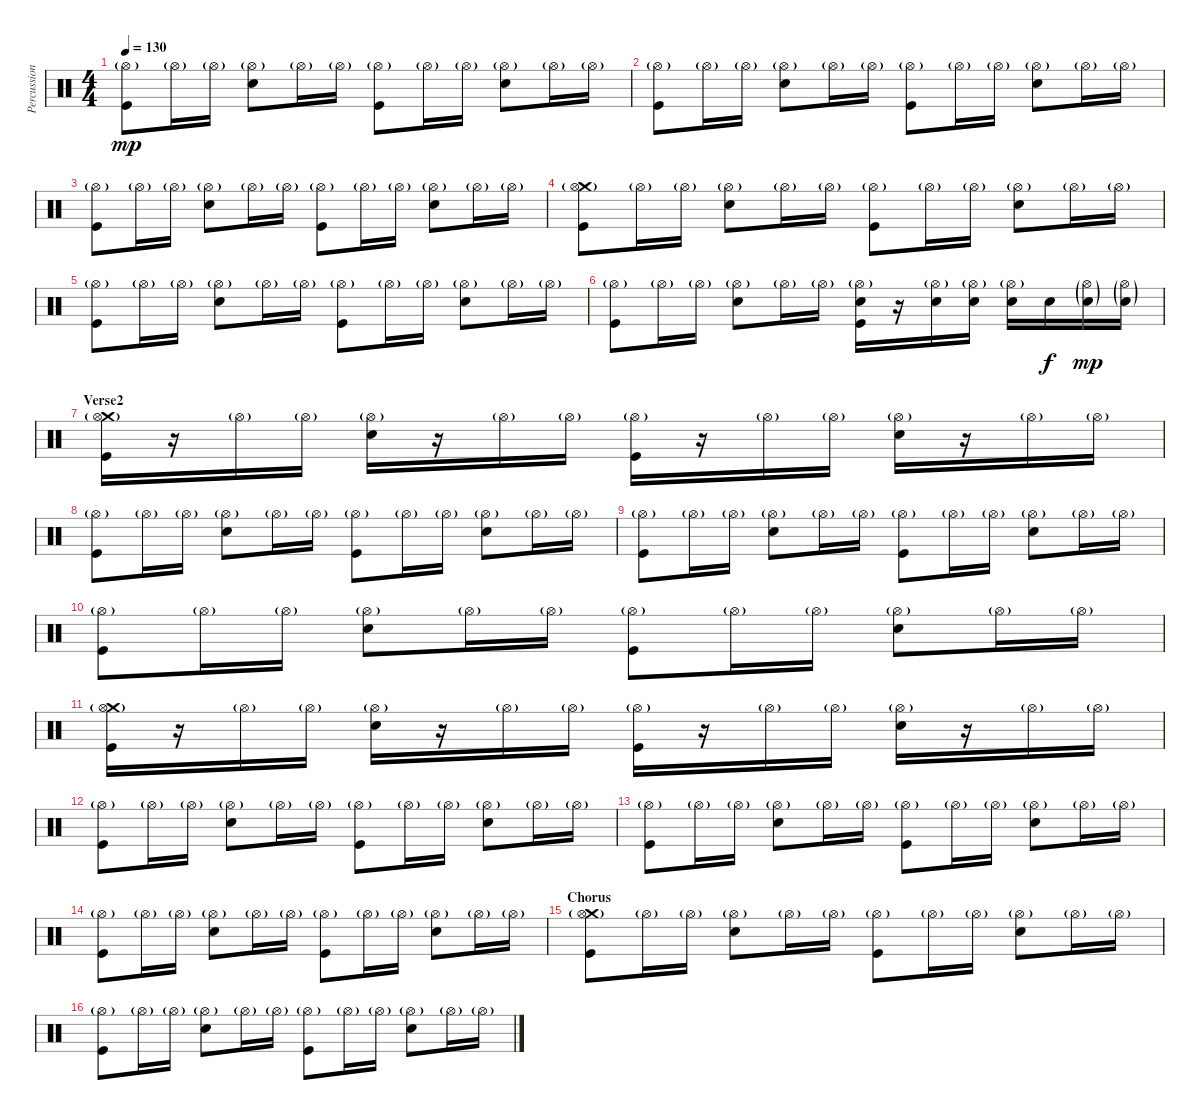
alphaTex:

\track ("Percussion" "Percussion") {instrument percussion}
\staff {score}
\articulation defaults
\ts (4 4)
\tempo 130
\clef neutral
\ks c
("Hi-Hat (open)"{g} "Kick (hit)").8{dy mp} "Hi-Hat (open)"{g}.16 "Hi-Hat (open)"{g}.16 ("Hi-Hat (open)"{g} "Snare (hit) 2").8 "Hi-Hat (open)"{g}.16 "Hi-Hat (open)"{g}.16 ("Hi-Hat (open)"{g} "Kick (hit)").8 "Hi-Hat (open)"{g}.16 "Hi-Hat (open)"{g}.16 ("Hi-Hat (open)"{g} "Snare (hit) 2").8 "Hi-Hat (open)"{g}.16 "Hi-Hat (open)"{g}.16 |
("Hi-Hat (open)"{g} "Kick (hit)").8{balance 8} "Hi-Hat (open)"{g}.16 "Hi-Hat (open)"{g}.16 ("Hi-Hat (open)"{g} "Snare (hit) 2").8 "Hi-Hat (open)"{g}.16 "Hi-Hat (open)"{g}.16 ("Hi-Hat (open)"{g} "Kick (hit)").8 "Hi-Hat (open)"{g}.16 "Hi-Hat (open)"{g}.16 ("Hi-Hat (open)"{g} "Snare (hit) 2").8 "Hi-Hat (open)"{g}.16 "Hi-Hat (open)"{g}.16 |
("Hi-Hat (open)"{g} "Kick (hit)").8{balance 8} "Hi-Hat (open)"{g}.16 "Hi-Hat (open)"{g}.16 ("Hi-Hat (open)"{g} "Snare (hit) 2").8 "Hi-Hat (open)"{g}.16 "Hi-Hat (open)"{g}.16 ("Hi-Hat (open)"{g} "Kick (hit)").8 "Hi-Hat (open)"{g}.16 "Hi-Hat (open)"{g}.16 ("Hi-Hat (open)"{g} "Snare (hit) 2").8 "Hi-Hat (open)"{g}.16 "Hi-Hat (open)"{g}.16 |
("Crash medium (hit)" "Hi-Hat (open)"{g} "Kick (hit)").8{balance 8} "Hi-Hat (open)"{g}.16 "Hi-Hat (open)"{g}.16 ("Hi-Hat (open)"{g} "Snare (hit) 2").8 "Hi-Hat (open)"{g}.16 "Hi-Hat (open)"{g}.16 ("Hi-Hat (open)"{g} "Kick (hit)").8 "Hi-Hat (open)"{g}.16 "Hi-Hat (open)"{g}.16 ("Hi-Hat (open)"{g} "Snare (hit) 2").8 "Hi-Hat (open)"{g}.16 "Hi-Hat (open)"{g}.16 |
("Hi-Hat (open)"{g} "Kick (hit)").8{balance 8} "Hi-Hat (open)"{g}.16 "Hi-Hat (open)"{g}.16 ("Hi-Hat (open)"{g} "Snare (hit) 2").8 "Hi-Hat (open)"{g}.16 "Hi-Hat (open)"{g}.16 ("Hi-Hat (open)"{g} "Kick (hit)").8 "Hi-Hat (open)"{g}.16 "Hi-Hat (open)"{g}.16 ("Hi-Hat (open)"{g} "Snare (hit) 2").8 "Hi-Hat (open)"{g}.16 "Hi-Hat (open)"{g}.16 |
("Hi-Hat (open)"{g} "Kick (hit)").8{balance 8} "Hi-Hat (open)"{g}.16 "Hi-Hat (open)"{g}.16 ("Hi-Hat (open)"{g} "Snare (hit) 2").8 "Hi-Hat (open)"{g}.16 "Hi-Hat (open)"{g}.16 ("Snare (hit) 2" "Hi-Hat (open)"{g} "Kick (hit)").16 r.16 ("Snare (hit) 2" "Hi-Hat (open)"{g}).16 ("Snare (hit) 2" "Hi-Hat (open)"{g}).16 ("Hi-Hat (open)"{g} "Snare (hit) 2").16 "Snare (hit) 2".16{dy f} ("Snare (hit) 2"{g} "Hi-Hat (open)"{g}).16{dy mp} ("Snare (hit) 2"{g} "Hi-Hat (open)"{g}).16 |
\section ("" "Verse2")
("Crash medium (hit)" "Hi-Hat (open)"{g} "Kick (hit)").16{balance 8} r.16 "Hi-Hat (open)"{g}.16 "Hi-Hat (open)"{g}.16 ("Hi-Hat (open)"{g} "Snare (hit) 2").16 r.16 "Hi-Hat (open)"{g}.16 "Hi-Hat (open)"{g}.16 ("Hi-Hat (open)"{g} "Kick (hit)").16 r.16 "Hi-Hat (open)"{g}.16 "Hi-Hat (open)"{g}.16 ("Hi-Hat (open)"{g} "Snare (hit) 2").16 r.16 "Hi-Hat (open)"{g}.16 "Hi-Hat (open)"{g}.16 |
("Hi-Hat (open)"{g} "Kick (hit)").8{balance 8} "Hi-Hat (open)"{g}.16 "Hi-Hat (open)"{g}.16 ("Hi-Hat (open)"{g} "Snare (hit) 2").8 "Hi-Hat (open)"{g}.16 "Hi-Hat (open)"{g}.16 ("Hi-Hat (open)"{g} "Kick (hit)").8 "Hi-Hat (open)"{g}.16 "Hi-Hat (open)"{g}.16 ("Hi-Hat (open)"{g} "Snare (hit) 2").8 "Hi-Hat (open)"{g}.16 "Hi-Hat (open)"{g}.16 |
("Hi-Hat (open)"{g} "Kick (hit)").8{balance 8} "Hi-Hat (open)"{g}.16 "Hi-Hat (open)"{g}.16 ("Hi-Hat (open)"{g} "Snare (hit) 2").8 "Hi-Hat (open)"{g}.16 "Hi-Hat (open)"{g}.16 ("Hi-Hat (open)"{g} "Kick (hit)").8 "Hi-Hat (open)"{g}.16 "Hi-Hat (open)"{g}.16 ("Hi-Hat (open)"{g} "Snare (hit) 2").8 "Hi-Hat (open)"{g}.16 "Hi-Hat (open)"{g}.16 |
("Hi-Hat (open)"{g} "Kick (hit)").8{balance 8} "Hi-Hat (open)"{g}.16 "Hi-Hat (open)"{g}.16 ("Hi-Hat (open)"{g} "Snare (hit) 2").8 "Hi-Hat (open)"{g}.16 "Hi-Hat (open)"{g}.16 ("Hi-Hat (open)"{g} "Kick (hit)").8 "Hi-Hat (open)"{g}.16 "Hi-Hat (open)"{g}.16 ("Hi-Hat (open)"{g} "Snare (hit) 2").8 "Hi-Hat (open)"{g}.16 "Hi-Hat (open)"{g}.16 |
("Crash medium (hit)" "Hi-Hat (open)"{g} "Kick (hit)").16{balance 8} r.16 "Hi-Hat (open)"{g}.16 "Hi-Hat (open)"{g}.16 ("Hi-Hat (open)"{g} "Snare (hit) 2").16 r.16 "Hi-Hat (open)"{g}.16 "Hi-Hat (open)"{g}.16 ("Hi-Hat (open)"{g} "Kick (hit)").16 r.16 "Hi-Hat (open)"{g}.16 "Hi-Hat (open)"{g}.16 ("Hi-Hat (open)"{g} "Snare (hit) 2").16 r.16 "Hi-Hat (open)"{g}.16 "Hi-Hat (open)"{g}.16 |
("Hi-Hat (open)"{g} "Kick (hit)").8{balance 8} "Hi-Hat (open)"{g}.16 "Hi-Hat (open)"{g}.16 ("Hi-Hat (open)"{g} "Snare (hit) 2").8 "Hi-Hat (open)"{g}.16 "Hi-Hat (open)"{g}.16 ("Hi-Hat (open)"{g} "Kick (hit)").8 "Hi-Hat (open)"{g}.16 "Hi-Hat (open)"{g}.16 ("Hi-Hat (open)"{g} "Snare (hit) 2").8 "Hi-Hat (open)"{g}.16 "Hi-Hat (open)"{g}.16 |
("Hi-Hat (open)"{g} "Kick (hit)").8{balance 8} "Hi-Hat (open)"{g}.16 "Hi-Hat (open)"{g}.16 ("Hi-Hat (open)"{g} "Snare (hit) 2").8 "Hi-Hat (open)"{g}.16 "Hi-Hat (open)"{g}.16 ("Hi-Hat (open)"{g} "Kick (hit)").8 "Hi-Hat (open)"{g}.16 "Hi-Hat (open)"{g}.16 ("Hi-Hat (open)"{g} "Snare (hit) 2").8 "Hi-Hat (open)"{g}.16 "Hi-Hat (open)"{g}.16 |
("Hi-Hat (open)"{g} "Kick (hit)").8{balance 8} "Hi-Hat (open)"{g}.16 "Hi-Hat (open)"{g}.16 ("Hi-Hat (open)"{g} "Snare (hit) 2").8 "Hi-Hat (open)"{g}.16 "Hi-Hat (open)"{g}.16 ("Hi-Hat (open)"{g} "Kick (hit)").8 "Hi-Hat (open)"{g}.16 "Hi-Hat (open)"{g}.16 ("Hi-Hat (open)"{g} "Snare (hit) 2").8 "Hi-Hat (open)"{g}.16 "Hi-Hat (open)"{g}.16 |
\section ("" "Chorus")
("Crash medium (hit)" "Hi-Hat (open)"{g} "Kick (hit)").8{balance 8} "Hi-Hat (open)"{g}.16 "Hi-Hat (open)"{g}.16 ("Hi-Hat (open)"{g} "Snare (hit) 2").8 "Hi-Hat (open)"{g}.16 "Hi-Hat (open)"{g}.16 ("Hi-Hat (open)"{g} "Kick (hit)").8 "Hi-Hat (open)"{g}.16 "Hi-Hat (open)"{g}.16 ("Hi-Hat (open)"{g} "Snare (hit) 2").8 "Hi-Hat (open)"{g}.16 "Hi-Hat (open)"{g}.16 |
("Hi-Hat (open)"{g} "Kick (hit)").8 "Hi-Hat (open)"{g}.16 "Hi-Hat (open)"{g}.16 ("Hi-Hat (open)"{g} "Snare (hit) 2").8 "Hi-Hat (open)"{g}.16 "Hi-Hat (open)"{g}.16 ("Hi-Hat (open)"{g} "Kick (hit)").8 "Hi-Hat (open)"{g}.16 "Hi-Hat (open)"{g}.16 ("Hi-Hat (open)"{g} "Snare (hit) 2").8 "Hi-Hat (open)"{g}.16 "Hi-Hat (open)"{g}.16
